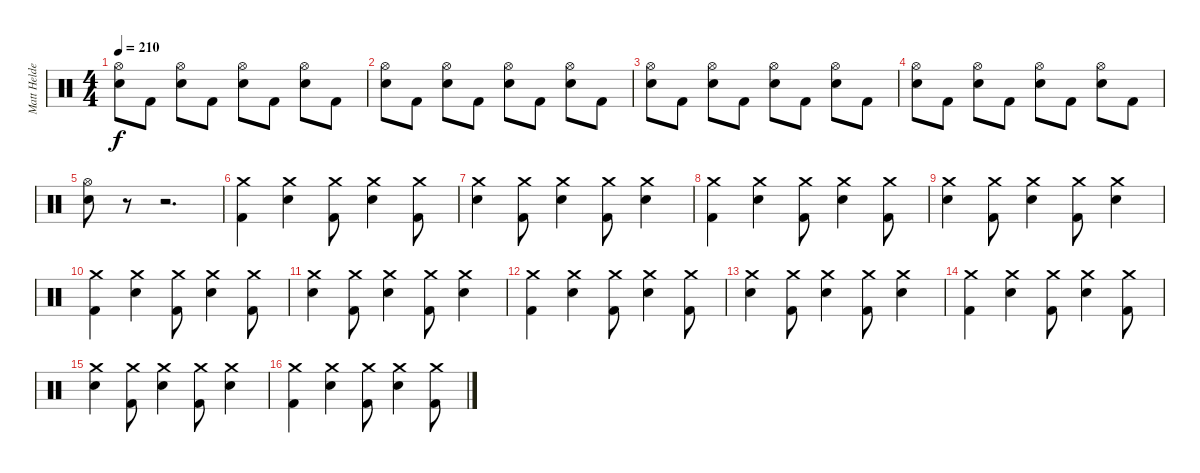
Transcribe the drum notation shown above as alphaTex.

\track ("Matt Helders" "Matt Helde") {instrument percussion}
\staff {score}
\articulation defaults
\ts (4 4)
\tempo 210
\clef neutral
\ks c
("Hi-Hat (open)" "Snare (hit) 2").8{dy f} "Kick (hit) 2".8 ("Hi-Hat (open)" "Snare (hit) 2").8 "Kick (hit) 2".8 ("Hi-Hat (open)" "Snare (hit) 2").8 "Kick (hit) 2".8 ("Hi-Hat (open)" "Snare (hit) 2").8 "Kick (hit) 2".8 |
("Hi-Hat (open)" "Snare (hit) 2").8 "Kick (hit) 2".8 ("Hi-Hat (open)" "Snare (hit) 2").8 "Kick (hit) 2".8 ("Hi-Hat (open)" "Snare (hit) 2").8 "Kick (hit) 2".8 ("Hi-Hat (open)" "Snare (hit) 2").8 "Kick (hit) 2".8 |
("Hi-Hat (open)" "Snare (hit) 2").8 "Kick (hit) 2".8 ("Hi-Hat (open)" "Snare (hit) 2").8 "Kick (hit) 2".8 ("Hi-Hat (open)" "Snare (hit) 2").8 "Kick (hit) 2".8 ("Hi-Hat (open)" "Snare (hit) 2").8 "Kick (hit) 2".8 |
("Hi-Hat (open)" "Snare (hit) 2").8 "Kick (hit) 2".8 ("Hi-Hat (open)" "Snare (hit) 2").8 "Kick (hit) 2".8 ("Hi-Hat (open)" "Snare (hit) 2").8 "Kick (hit) 2".8 ("Hi-Hat (open)" "Snare (hit) 2").8 "Kick (hit) 2".8 |
("Hi-Hat (open)" "Snare (hit) 2").8 r.8 r.2{d} |
("Crash medium (hit)" "Kick (hit) 2").4 ("Crash medium (hit)" "Snare (hit) 2").4 ("Crash medium (hit)" "Kick (hit) 2").8 ("Crash medium (hit)" "Snare (hit) 2").4 ("Crash medium (hit)" "Kick (hit) 2").8 |
("Crash medium (hit)" "Snare (hit) 2").4 ("Crash medium (hit)" "Kick (hit) 2").8 ("Crash medium (hit)" "Snare (hit) 2").4 ("Crash medium (hit)" "Kick (hit) 2").8 ("Crash medium (hit)" "Snare (hit) 2").4 |
("Crash medium (hit)" "Kick (hit) 2").4 ("Crash medium (hit)" "Snare (hit) 2").4 ("Crash medium (hit)" "Kick (hit) 2").8 ("Crash medium (hit)" "Snare (hit) 2").4 ("Crash medium (hit)" "Kick (hit) 2").8 |
("Crash medium (hit)" "Snare (hit) 2").4 ("Crash medium (hit)" "Kick (hit) 2").8 ("Crash medium (hit)" "Snare (hit) 2").4 ("Crash medium (hit)" "Kick (hit) 2").8 ("Crash medium (hit)" "Snare (hit) 2").4 |
("Crash medium (hit)" "Kick (hit) 2").4 ("Crash medium (hit)" "Snare (hit) 2").4 ("Crash medium (hit)" "Kick (hit) 2").8 ("Crash medium (hit)" "Snare (hit) 2").4 ("Crash medium (hit)" "Kick (hit) 2").8 |
("Crash medium (hit)" "Snare (hit) 2").4 ("Crash medium (hit)" "Kick (hit) 2").8 ("Crash medium (hit)" "Snare (hit) 2").4 ("Crash medium (hit)" "Kick (hit) 2").8 ("Crash medium (hit)" "Snare (hit) 2").4 |
("Crash medium (hit)" "Kick (hit) 2").4 ("Crash medium (hit)" "Snare (hit) 2").4 ("Crash medium (hit)" "Kick (hit) 2").8 ("Crash medium (hit)" "Snare (hit) 2").4 ("Crash medium (hit)" "Kick (hit) 2").8 |
("Crash medium (hit)" "Snare (hit) 2").4 ("Crash medium (hit)" "Kick (hit) 2").8 ("Crash medium (hit)" "Snare (hit) 2").4 ("Crash medium (hit)" "Kick (hit) 2").8 ("Crash medium (hit)" "Snare (hit) 2").4 |
("Crash medium (hit)" "Kick (hit) 2").4 ("Crash medium (hit)" "Snare (hit) 2").4 ("Crash medium (hit)" "Kick (hit) 2").8 ("Crash medium (hit)" "Snare (hit) 2").4 ("Crash medium (hit)" "Kick (hit) 2").8 |
("Crash medium (hit)" "Snare (hit) 2").4 ("Crash medium (hit)" "Kick (hit) 2").8 ("Crash medium (hit)" "Snare (hit) 2").4 ("Crash medium (hit)" "Kick (hit) 2").8 ("Crash medium (hit)" "Snare (hit) 2").4 |
("Crash medium (hit)" "Kick (hit) 2").4 ("Crash medium (hit)" "Snare (hit) 2").4 ("Crash medium (hit)" "Kick (hit) 2").8 ("Crash medium (hit)" "Snare (hit) 2").4 ("Crash medium (hit)" "Kick (hit) 2").8
